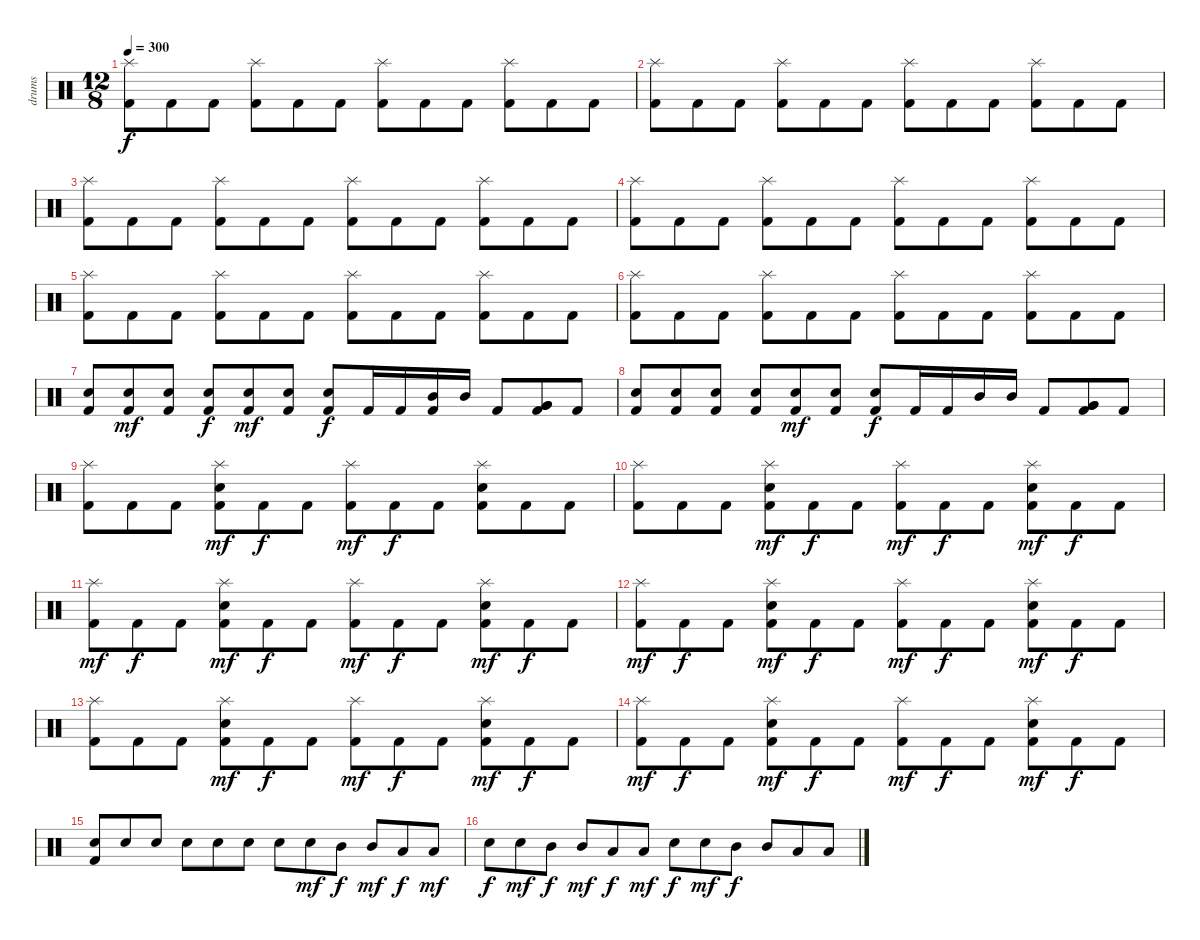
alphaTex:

\track ("drums" "drums") {instrument percussion}
\staff {score}
\articulation defaults
\ts (12 8)
\tempo 300
\clef neutral
\ks c
("Splash (hit)" "Kick (hit) 2").8{dy f} "Kick (hit) 2".8 "Kick (hit) 2".8 ("Splash (hit)" "Kick (hit) 2").8 "Kick (hit) 2".8 "Kick (hit) 2".8 ("Splash (hit)" "Kick (hit) 2").8 "Kick (hit) 2".8 "Kick (hit) 2".8 ("Splash (hit)" "Kick (hit) 2").8 "Kick (hit) 2".8 "Kick (hit) 2".8 |
("Splash (hit)" "Kick (hit) 2").8 "Kick (hit) 2".8 "Kick (hit) 2".8 ("Splash (hit)" "Kick (hit) 2").8 "Kick (hit) 2".8 "Kick (hit) 2".8 ("Splash (hit)" "Kick (hit) 2").8 "Kick (hit) 2".8 "Kick (hit) 2".8 ("Splash (hit)" "Kick (hit) 2").8 "Kick (hit) 2".8 "Kick (hit) 2".8 |
("Splash (hit)" "Kick (hit) 2").8 "Kick (hit) 2".8 "Kick (hit) 2".8 ("Splash (hit)" "Kick (hit) 2").8 "Kick (hit) 2".8 "Kick (hit) 2".8 ("Splash (hit)" "Kick (hit) 2").8 "Kick (hit) 2".8 "Kick (hit) 2".8 ("Splash (hit)" "Kick (hit) 2").8 "Kick (hit) 2".8 "Kick (hit) 2".8 |
("Splash (hit)" "Kick (hit) 2").8 "Kick (hit) 2".8 "Kick (hit) 2".8 ("Splash (hit)" "Kick (hit) 2").8 "Kick (hit) 2".8 "Kick (hit) 2".8 ("Splash (hit)" "Kick (hit) 2").8 "Kick (hit) 2".8 "Kick (hit) 2".8 ("Splash (hit)" "Kick (hit) 2").8 "Kick (hit) 2".8 "Kick (hit) 2".8 |
("Splash (hit)" "Kick (hit) 2").8 "Kick (hit) 2".8 "Kick (hit) 2".8 ("Splash (hit)" "Kick (hit) 2").8 "Kick (hit) 2".8 "Kick (hit) 2".8 ("Splash (hit)" "Kick (hit) 2").8 "Kick (hit) 2".8 "Kick (hit) 2".8 ("Splash (hit)" "Kick (hit) 2").8 "Kick (hit) 2".8 "Kick (hit) 2".8 |
("Splash (hit)" "Kick (hit) 2").8 "Kick (hit) 2".8 "Kick (hit) 2".8 ("Splash (hit)" "Kick (hit) 2").8 "Kick (hit) 2".8 "Kick (hit) 2".8 ("Splash (hit)" "Kick (hit) 2").8 "Kick (hit) 2".8 "Kick (hit) 2".8 ("Splash (hit)" "Kick (hit) 2").8 "Kick (hit) 2".8 "Kick (hit) 2".8 |
("Snare (hit) 2" "Kick (hit) 2").8 ("Snare (hit) 2" "Kick (hit) 2").8{dy mf} ("Snare (hit) 2" "Kick (hit) 2").8 ("Snare (hit) 2" "Kick (hit) 2").8{dy f} ("Snare (hit) 2" "Kick (hit) 2").8{dy mf} ("Snare (hit) 2" "Kick (hit) 2").8 ("Snare (hit) 2" "Kick (hit) 2").8{dy f} "Kick (hit) 2".16 "Kick (hit) 2".16 ("Mid Tom (hit)" "Kick (hit) 2").16 "Mid Tom (hit)".16 "Kick (hit) 2".8 ("Very Low Tom (hit)" "Kick (hit) 2" "Very Low Tom (hit)").8 "Kick (hit) 2".8 |
("Snare (hit) 2" "Kick (hit) 2").8 ("Snare (hit) 2" "Kick (hit) 2").8 ("Snare (hit) 2" "Kick (hit) 2").8 ("Snare (hit) 2" "Kick (hit) 2").8 ("Snare (hit) 2" "Kick (hit) 2").8{dy mf} ("Snare (hit) 2" "Kick (hit) 2").8 ("Snare (hit) 2" "Kick (hit) 2").8{dy f} "Kick (hit) 2".16 "Kick (hit) 2".16 "Mid Tom (hit)".16 "Mid Tom (hit)".16 "Kick (hit) 2".8 ("Very Low Tom (hit)" "Kick (hit) 2" "Very Low Tom (hit)").8 "Kick (hit) 2".8 |
("Splash (hit)" "Kick (hit) 2").8 "Kick (hit) 2".8 "Kick (hit) 2".8 ("Splash (hit)" "Snare (hit) 2" "Kick (hit) 2").8{dy mf} "Kick (hit) 2".8{dy f} "Kick (hit) 2".8 ("Splash (hit)" "Kick (hit) 2").8{dy mf} "Kick (hit) 2".8{dy f} "Kick (hit) 2".8 ("Splash (hit)" "Snare (hit) 2" "Kick (hit) 2").8 "Kick (hit) 2".8 "Kick (hit) 2".8 |
("Splash (hit)" "Kick (hit) 2").8 "Kick (hit) 2".8 "Kick (hit) 2".8 ("Splash (hit)" "Snare (hit) 2" "Kick (hit) 2").8{dy mf} "Kick (hit) 2".8{dy f} "Kick (hit) 2".8 ("Splash (hit)" "Kick (hit) 2").8{dy mf} "Kick (hit) 2".8{dy f} "Kick (hit) 2".8 ("Splash (hit)" "Snare (hit) 2" "Kick (hit) 2").8{dy mf} "Kick (hit) 2".8{dy f} "Kick (hit) 2".8 |
("Splash (hit)" "Kick (hit) 2").8{dy mf} "Kick (hit) 2".8{dy f} "Kick (hit) 2".8 ("Splash (hit)" "Snare (hit) 2" "Kick (hit) 2").8{dy mf} "Kick (hit) 2".8{dy f} "Kick (hit) 2".8 ("Splash (hit)" "Kick (hit) 2").8{dy mf} "Kick (hit) 2".8{dy f} "Kick (hit) 2".8 ("Splash (hit)" "Snare (hit) 2" "Kick (hit) 2").8{dy mf} "Kick (hit) 2".8{dy f} "Kick (hit) 2".8 |
("Splash (hit)" "Kick (hit) 2").8{dy mf} "Kick (hit) 2".8{dy f} "Kick (hit) 2".8 ("Splash (hit)" "Snare (hit) 2" "Kick (hit) 2").8{dy mf} "Kick (hit) 2".8{dy f} "Kick (hit) 2".8 ("Splash (hit)" "Kick (hit) 2").8{dy mf} "Kick (hit) 2".8{dy f} "Kick (hit) 2".8 ("Splash (hit)" "Snare (hit) 2" "Kick (hit) 2").8{dy mf} "Kick (hit) 2".8{dy f} "Kick (hit) 2".8 |
("Splash (hit)" "Kick (hit) 2").8 "Kick (hit) 2".8 "Kick (hit) 2".8 ("Splash (hit)" "Snare (hit) 2" "Kick (hit) 2").8{dy mf} "Kick (hit) 2".8{dy f} "Kick (hit) 2".8 ("Splash (hit)" "Kick (hit) 2").8{dy mf} "Kick (hit) 2".8{dy f} "Kick (hit) 2".8 ("Splash (hit)" "Snare (hit) 2" "Kick (hit) 2").8{dy mf} "Kick (hit) 2".8{dy f} "Kick (hit) 2".8 |
("Splash (hit)" "Kick (hit) 2").8{dy mf} "Kick (hit) 2".8{dy f} "Kick (hit) 2".8 ("Splash (hit)" "Snare (hit) 2" "Kick (hit) 2").8{dy mf} "Kick (hit) 2".8{dy f} "Kick (hit) 2".8 ("Splash (hit)" "Kick (hit) 2").8{dy mf} "Kick (hit) 2".8{dy f} "Kick (hit) 2".8 ("Splash (hit)" "Snare (hit) 2" "Kick (hit) 2").8{dy mf} "Kick (hit) 2".8{dy f} "Kick (hit) 2".8 |
("Snare (hit) 2" "Kick (hit) 2").8 "Snare (hit) 2".8 "Snare (hit) 2".8 "Snare (hit) 2".8 "Snare (hit) 2".8 "Snare (hit) 2".8 "Snare (hit) 2".8 "Snare (hit) 2".8{dy mf} "Mid Tom (hit)".8{dy f} "Mid Tom (hit)".8{dy mf} "Low Tom (hit)".8{dy f} "Low Tom (hit)".8{dy mf} |
"Snare (hit) 2".8{dy f} "Snare (hit) 2".8{dy mf} "Mid Tom (hit)".8{dy f} "Mid Tom (hit)".8{dy mf} "Low Tom (hit)".8{dy f} "Low Tom (hit)".8{dy mf} "Snare (hit) 2".8{dy f} "Snare (hit) 2".8{dy mf} "Mid Tom (hit)".8{dy f} "Mid Tom (hit)".8 "Low Tom (hit)".8 "Low Tom (hit)".8
